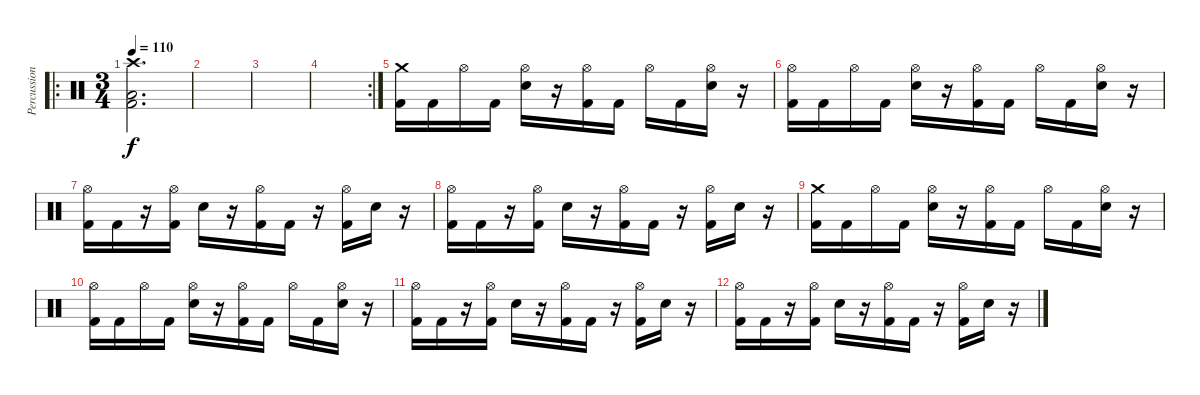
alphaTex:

\track ("Percussion" "Percussion") {instrument percussion}
\staff {score}
\articulation defaults
\ro
\ts (3 4)
\tempo 110
\clef neutral
\ks c
("Crash high (hit)" "Low Floor Tom (hit)" "Kick (hit) 2").2{d dy f} |
|
|
\rc 2
|
("Crash medium (hit)" "Kick (hit) 2").16 "Kick (hit) 2".16 "Hi-Hat (open)".16 "Kick (hit) 2".16 ("Hi-Hat (open)" "Snare (hit) 2").16 r.16 ("Hi-Hat (open)" "Kick (hit) 2").16 "Kick (hit) 2".16 "Hi-Hat (open)".16 "Kick (hit) 2".16 ("Hi-Hat (open)" "Snare (hit) 2").16 r.16 |
("Hi-Hat (open)" "Kick (hit) 2").16 "Kick (hit) 2".16 "Hi-Hat (open)".16 "Kick (hit) 2".16 ("Hi-Hat (open)" "Snare (hit) 2").16 r.16 ("Hi-Hat (open)" "Kick (hit) 2").16 "Kick (hit) 2".16 "Hi-Hat (open)".16 "Kick (hit) 2".16 ("Hi-Hat (open)" "Snare (hit) 2").16 r.16 |
("Hi-Hat (open)" "Kick (hit) 2").16 "Kick (hit) 2".16 r.16 ("Hi-Hat (open)" "Kick (hit) 2").16 "Snare (hit) 2".16 r.16 ("Hi-Hat (open)" "Kick (hit) 2").16 "Kick (hit) 2".16 r.16 ("Hi-Hat (open)" "Kick (hit) 2").16 "Snare (hit) 2".16 r.16 |
("Hi-Hat (open)" "Kick (hit) 2").16 "Kick (hit) 2".16 r.16 ("Hi-Hat (open)" "Kick (hit) 2").16 "Snare (hit) 2".16 r.16 ("Hi-Hat (open)" "Kick (hit) 2").16 "Kick (hit) 2".16 r.16 ("Hi-Hat (open)" "Kick (hit) 2").16 "Snare (hit) 2".16 r.16 |
("Crash medium (hit)" "Kick (hit) 2").16 "Kick (hit) 2".16 "Hi-Hat (open)".16 "Kick (hit) 2".16 ("Hi-Hat (open)" "Snare (hit) 2").16 r.16 ("Hi-Hat (open)" "Kick (hit) 2").16 "Kick (hit) 2".16 "Hi-Hat (open)".16 "Kick (hit) 2".16 ("Hi-Hat (open)" "Snare (hit) 2").16 r.16 |
("Hi-Hat (open)" "Kick (hit) 2").16 "Kick (hit) 2".16 "Hi-Hat (open)".16 "Kick (hit) 2".16 ("Hi-Hat (open)" "Snare (hit) 2").16 r.16 ("Hi-Hat (open)" "Kick (hit) 2").16 "Kick (hit) 2".16 "Hi-Hat (open)".16 "Kick (hit) 2".16 ("Hi-Hat (open)" "Snare (hit) 2").16 r.16 |
("Hi-Hat (open)" "Kick (hit) 2").16 "Kick (hit) 2".16 r.16 ("Hi-Hat (open)" "Kick (hit) 2").16 "Snare (hit) 2".16 r.16 ("Hi-Hat (open)" "Kick (hit) 2").16 "Kick (hit) 2".16 r.16 ("Hi-Hat (open)" "Kick (hit) 2").16 "Snare (hit) 2".16 r.16 |
("Hi-Hat (open)" "Kick (hit) 2").16 "Kick (hit) 2".16 r.16 ("Hi-Hat (open)" "Kick (hit) 2").16 "Snare (hit) 2".16 r.16 ("Hi-Hat (open)" "Kick (hit) 2").16 "Kick (hit) 2".16 r.16 ("Hi-Hat (open)" "Kick (hit) 2").16 "Snare (hit) 2".16 r.16
